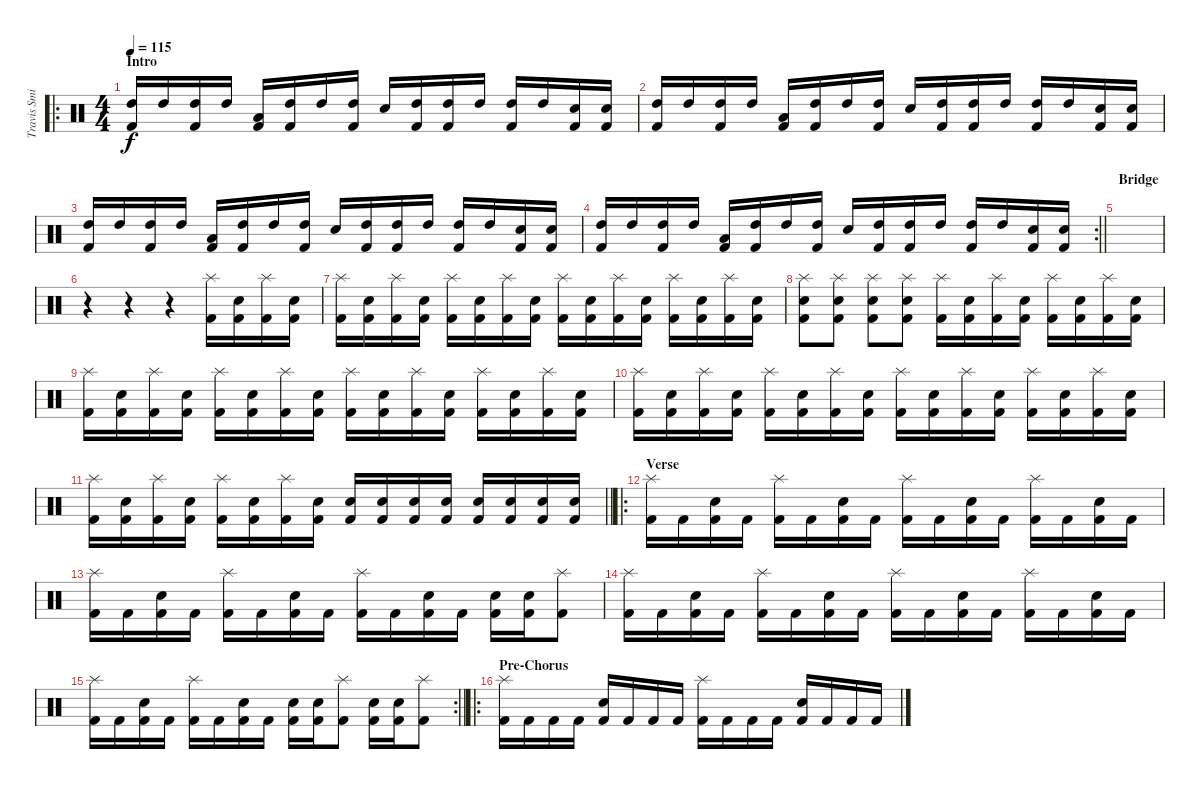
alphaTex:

\track ("Travis Smith" "Travis Smi") {instrument percussion}
\staff {score}
\articulation defaults
\ro
\ts (4 4)
\section ("" "Intro")
\tempo 115
\clef neutral
\ks c
("High Tom (hit)" "Kick (hit) 2").16{dy f} "High Tom (hit)".16 ("High Tom (hit)" "Kick (hit) 2").16 "High Tom (hit)".16 ("Low Tom (hit)" "Kick (hit) 2").16 ("High Tom (hit)" "Kick (hit) 2").16 "High Tom (hit)".16 ("High Tom (hit)" "Kick (hit) 2").16 "Electric Snare (hit)".16 ("High Tom (hit)" "Kick (hit) 2").16 ("High Tom (hit)" "Kick (hit) 2").16 "High Tom (hit)".16 ("High Tom (hit)" "Kick (hit) 2").16 "High Tom (hit)".16 ("Electric Snare (hit)" "Kick (hit) 2").16 ("Electric Snare (hit)" "Kick (hit) 2").16 |
("High Tom (hit)" "Kick (hit) 2").16 "High Tom (hit)".16 ("High Tom (hit)" "Kick (hit) 2").16 "High Tom (hit)".16 ("Low Tom (hit)" "Kick (hit) 2").16 ("High Tom (hit)" "Kick (hit) 2").16 "High Tom (hit)".16 ("High Tom (hit)" "Kick (hit) 2").16 "Electric Snare (hit)".16 ("High Tom (hit)" "Kick (hit) 2").16 ("High Tom (hit)" "Kick (hit) 2").16 "High Tom (hit)".16 ("High Tom (hit)" "Kick (hit) 2").16 "High Tom (hit)".16 ("Electric Snare (hit)" "Kick (hit) 2").16 ("Electric Snare (hit)" "Kick (hit) 2").16 |
("High Tom (hit)" "Kick (hit) 2").16 "High Tom (hit)".16 ("High Tom (hit)" "Kick (hit) 2").16 "High Tom (hit)".16 ("Low Tom (hit)" "Kick (hit) 2").16 ("High Tom (hit)" "Kick (hit) 2").16 "High Tom (hit)".16 ("High Tom (hit)" "Kick (hit) 2").16 "Electric Snare (hit)".16 ("High Tom (hit)" "Kick (hit) 2").16 ("High Tom (hit)" "Kick (hit) 2").16 "High Tom (hit)".16 ("High Tom (hit)" "Kick (hit) 2").16 "High Tom (hit)".16 ("Electric Snare (hit)" "Kick (hit) 2").16 ("Electric Snare (hit)" "Kick (hit) 2").16 |
\rc 2
\barLineRight lightlight
("High Tom (hit)" "Kick (hit) 2").16 "High Tom (hit)".16 ("High Tom (hit)" "Kick (hit) 2").16 "High Tom (hit)".16 ("Low Tom (hit)" "Kick (hit) 2").16 ("High Tom (hit)" "Kick (hit) 2").16 "High Tom (hit)".16 ("High Tom (hit)" "Kick (hit) 2").16 "Electric Snare (hit)".16 ("High Tom (hit)" "Kick (hit) 2").16 ("High Tom (hit)" "Kick (hit) 2").16 "High Tom (hit)".16 ("High Tom (hit)" "Kick (hit) 2").16 "High Tom (hit)".16 ("Electric Snare (hit)" "Kick (hit) 2").16 ("Electric Snare (hit)" "Kick (hit) 2").16 |
\section ("" "Bridge")
|
r.4 r.4 r.4 ("Splash (hit)" "Kick (hit) 2").16 ("Electric Snare (hit)" "Kick (hit) 2").16 ("Splash (hit)" "Kick (hit) 2").16 ("Electric Snare (hit)" "Kick (hit) 2").16 |
("Splash (hit)" "Kick (hit) 2").16 ("Electric Snare (hit)" "Kick (hit) 2").16 ("Splash (hit)" "Kick (hit) 2").16 ("Electric Snare (hit)" "Kick (hit) 2").16 ("Splash (hit)" "Kick (hit) 2").16 ("Electric Snare (hit)" "Kick (hit) 2").16 ("Splash (hit)" "Kick (hit) 2").16 ("Electric Snare (hit)" "Kick (hit) 2").16 ("Splash (hit)" "Kick (hit) 2").16 ("Electric Snare (hit)" "Kick (hit) 2").16 ("Splash (hit)" "Kick (hit) 2").16 ("Electric Snare (hit)" "Kick (hit) 2").16 ("Splash (hit)" "Kick (hit) 2").16 ("Electric Snare (hit)" "Kick (hit) 2").16 ("Splash (hit)" "Kick (hit) 2").16 ("Electric Snare (hit)" "Kick (hit) 2").16 |
("Splash (hit)" "Electric Snare (hit)" "Kick (hit) 2").8 ("Splash (hit)" "Electric Snare (hit)" "Kick (hit) 2").8 ("Splash (hit)" "Electric Snare (hit)" "Kick (hit) 2").8 ("Splash (hit)" "Electric Snare (hit)" "Kick (hit) 2").8 ("Splash (hit)" "Kick (hit) 2").16 ("Electric Snare (hit)" "Kick (hit) 2").16 ("Splash (hit)" "Kick (hit) 2").16 ("Electric Snare (hit)" "Kick (hit) 2").16 ("Splash (hit)" "Kick (hit) 2").16 ("Electric Snare (hit)" "Kick (hit) 2").16 ("Splash (hit)" "Kick (hit) 2").16 ("Electric Snare (hit)" "Kick (hit) 2").16 |
("Splash (hit)" "Kick (hit) 2").16 ("Electric Snare (hit)" "Kick (hit) 2").16 ("Splash (hit)" "Kick (hit) 2").16 ("Electric Snare (hit)" "Kick (hit) 2").16 ("Splash (hit)" "Kick (hit) 2").16 ("Electric Snare (hit)" "Kick (hit) 2").16 ("Splash (hit)" "Kick (hit) 2").16 ("Electric Snare (hit)" "Kick (hit) 2").16 ("Splash (hit)" "Kick (hit) 2").16 ("Electric Snare (hit)" "Kick (hit) 2").16 ("Splash (hit)" "Kick (hit) 2").16 ("Electric Snare (hit)" "Kick (hit) 2").16 ("Splash (hit)" "Kick (hit) 2").16 ("Electric Snare (hit)" "Kick (hit) 2").16 ("Splash (hit)" "Kick (hit) 2").16 ("Electric Snare (hit)" "Kick (hit) 2").16 |
("Splash (hit)" "Kick (hit) 2").16 ("Electric Snare (hit)" "Kick (hit) 2").16 ("Splash (hit)" "Kick (hit) 2").16 ("Electric Snare (hit)" "Kick (hit) 2").16 ("Splash (hit)" "Kick (hit) 2").16 ("Electric Snare (hit)" "Kick (hit) 2").16 ("Splash (hit)" "Kick (hit) 2").16 ("Electric Snare (hit)" "Kick (hit) 2").16 ("Splash (hit)" "Kick (hit) 2").16 ("Electric Snare (hit)" "Kick (hit) 2").16 ("Splash (hit)" "Kick (hit) 2").16 ("Electric Snare (hit)" "Kick (hit) 2").16 ("Splash (hit)" "Kick (hit) 2").16 ("Electric Snare (hit)" "Kick (hit) 2").16 ("Splash (hit)" "Kick (hit) 2").16 ("Electric Snare (hit)" "Kick (hit) 2").16 |
\barLineRight lightlight
("Splash (hit)" "Kick (hit) 2").16 ("Electric Snare (hit)" "Kick (hit) 2").16 ("Splash (hit)" "Kick (hit) 2").16 ("Electric Snare (hit)" "Kick (hit) 2").16 ("Splash (hit)" "Kick (hit) 2").16 ("Electric Snare (hit)" "Kick (hit) 2").16 ("Splash (hit)" "Kick (hit) 2").16 ("Electric Snare (hit)" "Kick (hit) 2").16 ("Electric Snare (hit)" "Kick (hit) 2").16 ("Electric Snare (hit)" "Kick (hit) 2").16 ("Electric Snare (hit)" "Kick (hit) 2").16 ("Electric Snare (hit)" "Kick (hit) 2").16 ("Electric Snare (hit)" "Kick (hit) 2").16 ("Electric Snare (hit)" "Kick (hit) 2").16 ("Electric Snare (hit)" "Kick (hit) 2").16 ("Electric Snare (hit)" "Kick (hit) 2").16 |
\ro
\section ("" "Verse")
("Splash (hit)" "Kick (hit) 2").16 "Kick (hit) 2".16 ("Electric Snare (hit)" "Kick (hit) 2").16 "Kick (hit) 2".16 ("Splash (hit)" "Kick (hit) 2").16 "Kick (hit) 2".16 ("Electric Snare (hit)" "Kick (hit) 2").16 "Kick (hit) 2".16 ("Splash (hit)" "Kick (hit) 2").16 "Kick (hit) 2".16 ("Electric Snare (hit)" "Kick (hit) 2").16 "Kick (hit) 2".16 ("Splash (hit)" "Kick (hit) 2").16 "Kick (hit) 2".16 ("Electric Snare (hit)" "Kick (hit) 2").16 "Kick (hit) 2".16 |
("Splash (hit)" "Kick (hit) 2").16 "Kick (hit) 2".16 ("Electric Snare (hit)" "Kick (hit) 2").16 "Kick (hit) 2".16 ("Splash (hit)" "Kick (hit) 2").16 "Kick (hit) 2".16 ("Electric Snare (hit)" "Kick (hit) 2").16 "Kick (hit) 2".16 ("Splash (hit)" "Kick (hit) 2").16 "Kick (hit) 2".16 ("Electric Snare (hit)" "Kick (hit) 2").16 "Kick (hit) 2".16 ("Electric Snare (hit)" "Kick (hit) 2").16 ("Electric Snare (hit)" "Kick (hit) 2").16 ("Splash (hit)" "Kick (hit) 2").8 |
("Splash (hit)" "Kick (hit) 2").16 "Kick (hit) 2".16 ("Electric Snare (hit)" "Kick (hit) 2").16 "Kick (hit) 2".16 ("Splash (hit)" "Kick (hit) 2").16 "Kick (hit) 2".16 ("Electric Snare (hit)" "Kick (hit) 2").16 "Kick (hit) 2".16 ("Splash (hit)" "Kick (hit) 2").16 "Kick (hit) 2".16 ("Electric Snare (hit)" "Kick (hit) 2").16 "Kick (hit) 2".16 ("Splash (hit)" "Kick (hit) 2").16 "Kick (hit) 2".16 ("Electric Snare (hit)" "Kick (hit) 2").16 "Kick (hit) 2".16 |
\rc 2
\barLineRight lightlight
("Splash (hit)" "Kick (hit) 2").16 "Kick (hit) 2".16 ("Electric Snare (hit)" "Kick (hit) 2").16 "Kick (hit) 2".16 ("Splash (hit)" "Kick (hit) 2").16 "Kick (hit) 2".16 ("Electric Snare (hit)" "Kick (hit) 2").16 "Kick (hit) 2".16 ("Electric Snare (hit)" "Kick (hit) 2").16 ("Electric Snare (hit)" "Kick (hit) 2").16 ("Splash (hit)" "Kick (hit) 2").8 ("Electric Snare (hit)" "Kick (hit) 2").16 ("Electric Snare (hit)" "Kick (hit) 2").16 ("Splash (hit)" "Kick (hit) 2").8 |
\ro
\section ("" "Pre-Chorus")
("Splash (hit)" "Kick (hit) 2").16 "Kick (hit) 2".16 "Kick (hit) 2".16 "Kick (hit) 2".16 ("Electric Snare (hit)" "Kick (hit) 2").16 "Kick (hit) 2".16 "Kick (hit) 2".16 "Kick (hit) 2".16 ("Splash (hit)" "Kick (hit) 2").16 "Kick (hit) 2".16 "Kick (hit) 2".16 "Kick (hit) 2".16 ("Electric Snare (hit)" "Kick (hit) 2").16 "Kick (hit) 2".16 "Kick (hit) 2".16 "Kick (hit) 2".16
